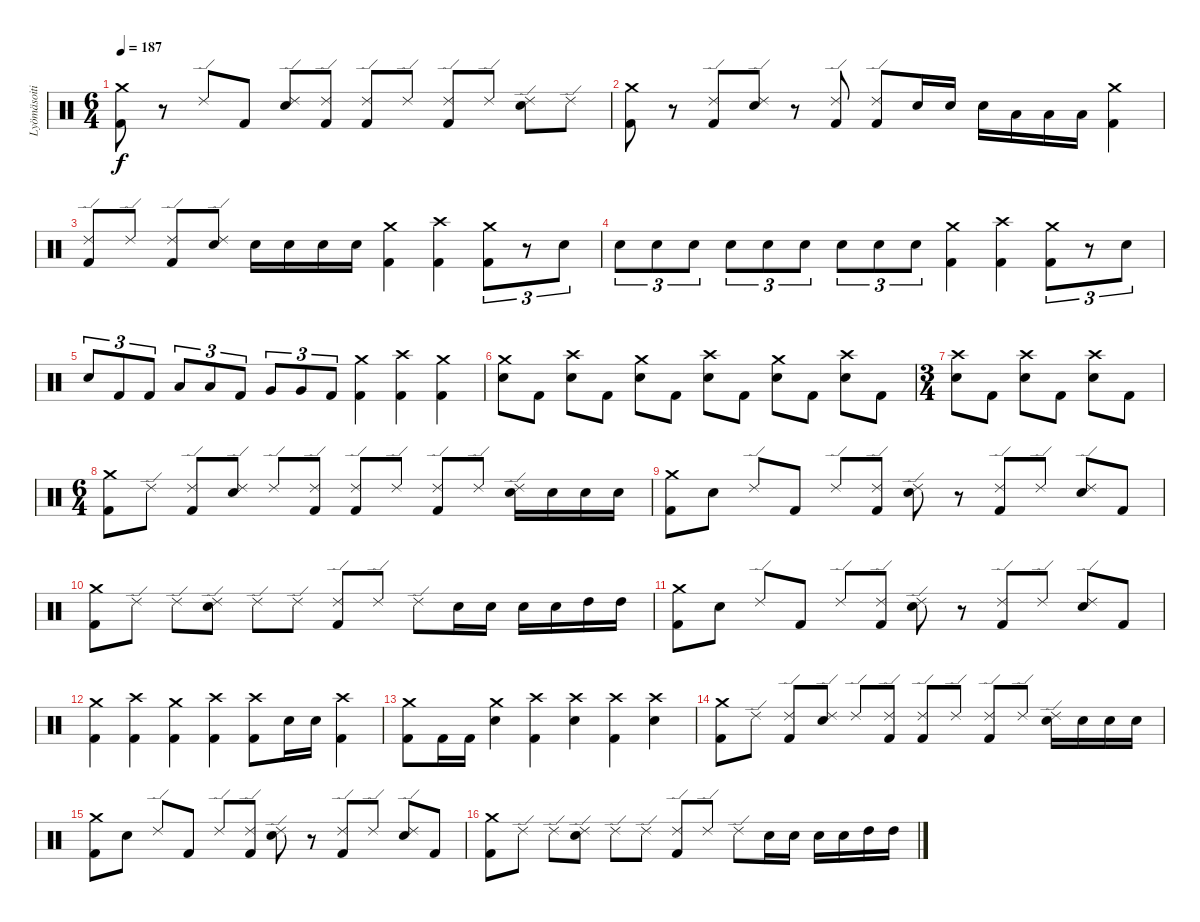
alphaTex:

\track ("Lyömäsoitin" "Lyömäsoiti") {instrument percussion}
\staff {score}
\articulation defaults
\ts (6 4)
\tempo 187
\clef neutral
\ks c
("Kick (hit) 2" "Crash medium (hit)").8{dy f} r.8 "Ride (edge) 2".8 "Kick (hit) 2".8 ("Ride (edge) 2" "Snare (hit) 2").8 ("Ride (edge) 2" "Kick (hit) 2").8 ("Ride (edge) 2" "Kick (hit) 2").8 "Ride (edge) 2".8 ("Ride (edge) 2" "Kick (hit) 2").8 "Ride (edge) 2".8 ("Ride (edge) 2" "Snare (hit) 2").8 "Ride (edge) 2".8 |
("Kick (hit) 2" "Crash medium (hit)").8 r.8 ("Kick (hit) 2" "Ride (edge) 2").8 ("Snare (hit) 2" "Ride (edge) 2").8 r.8 ("Ride (edge) 2" "Kick (hit) 2").8 ("Ride (edge) 2" "Kick (hit) 2").8 "Snare (hit) 2".16 "Snare (hit) 2".16 "Snare (hit) 2".16 "Low Tom (hit)".16 "Low Tom (hit)".16 "Low Tom (hit)".16 ("Kick (hit) 2" "Crash medium (hit)").4 |
("Kick (hit) 2" "Ride (edge) 2").8 "Ride (edge) 2".8 ("Kick (hit) 2" "Ride (edge) 2").8 ("Snare (hit) 2" "Ride (edge) 2").8 "Snare (hit) 2".16 "Snare (hit) 2".16 "Snare (hit) 2".16 "Snare (hit) 2".16 ("Kick (hit) 2" "Crash medium (hit)").4 ("Kick (hit) 2" "Crash high (hit)").4 ("Kick (hit) 2" "Crash medium (hit)").8{tu (3 2)} r.8{tu (3 2)} "Snare (hit) 2".8{tu (3 2)} |
"Snare (hit) 2".8{tu (3 2)} "Snare (hit) 2".8{tu (3 2)} "Snare (hit) 2".8{tu (3 2)} "Snare (hit) 2".8{tu (3 2)} "Snare (hit) 2".8{tu (3 2)} "Snare (hit) 2".8{tu (3 2)} "Snare (hit) 2".8{tu (3 2)} "Snare (hit) 2".8{tu (3 2)} "Snare (hit) 2".8{tu (3 2)} ("Kick (hit) 2" "Crash medium (hit)").4 ("Kick (hit) 2" "Crash high (hit)").4 ("Kick (hit) 2" "Crash medium (hit)").8{tu (3 2)} r.8{tu (3 2)} "Snare (hit) 2".8{tu (3 2)} |
"Snare (hit) 2".8{tu (3 2)} "Kick (hit) 2".8{tu (3 2)} "Kick (hit) 2".8{tu (3 2)} "Low Tom (hit)".8{tu (3 2)} "Low Tom (hit)".8{tu (3 2)} "Kick (hit) 2".8{tu (3 2)} "Very Low Tom (hit)".8{tu (3 2)} "Very Low Tom (hit)".8{tu (3 2)} "Kick (hit) 2".8{tu (3 2)} ("Kick (hit) 2" "Crash medium (hit)").4 ("Kick (hit) 2" "Crash high (hit)").4 ("Kick (hit) 2" "Crash medium (hit)").4 |
("Snare (hit) 2" "Crash medium (hit)").8 "Kick (hit) 2".8 ("Crash high (hit)" "Snare (hit) 2").8 "Kick (hit) 2".8 ("Crash medium (hit)" "Snare (hit) 2").8 "Kick (hit) 2".8 ("Crash high (hit)" "Snare (hit) 2").8 "Kick (hit) 2".8 ("Crash medium (hit)" "Snare (hit) 2").8 "Kick (hit) 2".8 ("Crash high (hit)" "Snare (hit) 2").8 "Kick (hit) 2".8 |
\ts (3 4)
("Crash high (hit)" "Snare (hit) 2").8 "Kick (hit) 2".8 ("Crash high (hit)" "Snare (hit) 2").8 "Kick (hit) 2".8 ("Crash high (hit)" "Snare (hit) 2").8 "Kick (hit) 2".8 |
\ts (6 4)
("Kick (hit) 2" "Crash medium (hit)").8 "Ride (edge) 2".8 ("Ride (edge) 2" "Kick (hit) 2").8 ("Ride (edge) 2" "Snare (hit) 2").8 "Ride (edge) 2".8 ("Ride (edge) 2" "Kick (hit) 2").8 ("Ride (edge) 2" "Kick (hit) 2").8 "Ride (edge) 2".8 ("Ride (edge) 2" "Kick (hit) 2").8 "Ride (edge) 2".8 ("Ride (edge) 2" "Snare (hit) 2").16 "Snare (hit) 2".16 "Snare (hit) 2".16 "Snare (hit) 2".16 |
("Kick (hit) 2" "Crash medium (hit)").8 "Snare (hit) 2".8 "Ride (edge) 2".8 "Kick (hit) 2".8 "Ride (edge) 2".8 ("Ride (edge) 2" "Kick (hit) 2").8 ("Ride (edge) 2" "Snare (hit) 2").8 r.8 ("Ride (edge) 2" "Kick (hit) 2").8 "Ride (edge) 2".8 ("Ride (edge) 2" "Snare (hit) 2").8 "Kick (hit) 2".8 |
("Kick (hit) 2" "Crash medium (hit)").8 "Ride (edge) 2".8 "Ride (edge) 2".8 ("Ride (edge) 2" "Snare (hit) 2").8 "Ride (edge) 2".8 "Ride (edge) 2".8 ("Kick (hit) 2" "Ride (edge) 2").8 "Ride (edge) 2".8 "Ride (edge) 2".8 "Snare (hit) 2".16 "Snare (hit) 2".16 "Snare (hit) 2".16 "Snare (hit) 2".16 "High Tom (hit)".16 "High Tom (hit)".16 |
("Kick (hit) 2" "Crash medium (hit)").8 "Snare (hit) 2".8 "Ride (edge) 2".8 "Kick (hit) 2".8 "Ride (edge) 2".8 ("Ride (edge) 2" "Kick (hit) 2").8 ("Ride (edge) 2" "Snare (hit) 2").8 r.8 ("Ride (edge) 2" "Kick (hit) 2").8 "Ride (edge) 2".8 ("Ride (edge) 2" "Snare (hit) 2").8 "Kick (hit) 2".8 |
("Kick (hit) 2" "Crash medium (hit)").4 ("Kick (hit) 2" "Crash high (hit)").4 ("Kick (hit) 2" "Crash medium (hit)").4 ("Kick (hit) 2" "Crash high (hit)").4 ("Kick (hit) 2" "Crash high (hit)").8 "Snare (hit) 2".16 "Snare (hit) 2".16 ("Kick (hit) 2" "Crash high (hit)").4 |
("Kick (hit) 2" "Crash medium (hit)").8 "Kick (hit) 2".16 "Kick (hit) 2".16 ("Snare (hit) 2" "Crash medium (hit)").4 ("Kick (hit) 2" "Crash high (hit)").4 ("Snare (hit) 2" "Crash high (hit)").4 ("Kick (hit) 2" "Crash high (hit)").4 ("Snare (hit) 2" "Crash high (hit)").4 |
("Kick (hit) 2" "Crash medium (hit)").8 "Ride (edge) 2".8 ("Ride (edge) 2" "Kick (hit) 2").8 ("Ride (edge) 2" "Snare (hit) 2").8 "Ride (edge) 2".8 ("Ride (edge) 2" "Kick (hit) 2").8 ("Ride (edge) 2" "Kick (hit) 2").8 "Ride (edge) 2".8 ("Ride (edge) 2" "Kick (hit) 2").8 "Ride (edge) 2".8 ("Ride (edge) 2" "Snare (hit) 2").16 "Snare (hit) 2".16 "Snare (hit) 2".16 "Snare (hit) 2".16 |
("Kick (hit) 2" "Crash medium (hit)").8 "Snare (hit) 2".8 "Ride (edge) 2".8 "Kick (hit) 2".8 "Ride (edge) 2".8 ("Ride (edge) 2" "Kick (hit) 2").8 ("Ride (edge) 2" "Snare (hit) 2").8 r.8 ("Ride (edge) 2" "Kick (hit) 2").8 "Ride (edge) 2".8 ("Ride (edge) 2" "Snare (hit) 2").8 "Kick (hit) 2".8 |
("Kick (hit) 2" "Crash medium (hit)").8 "Ride (edge) 2".8 "Ride (edge) 2".8 ("Ride (edge) 2" "Snare (hit) 2").8 "Ride (edge) 2".8 "Ride (edge) 2".8 ("Kick (hit) 2" "Ride (edge) 2").8 "Ride (edge) 2".8 "Ride (edge) 2".8 "Snare (hit) 2".16 "Snare (hit) 2".16 "Snare (hit) 2".16 "Snare (hit) 2".16 "High Tom (hit)".16 "High Tom (hit)".16
